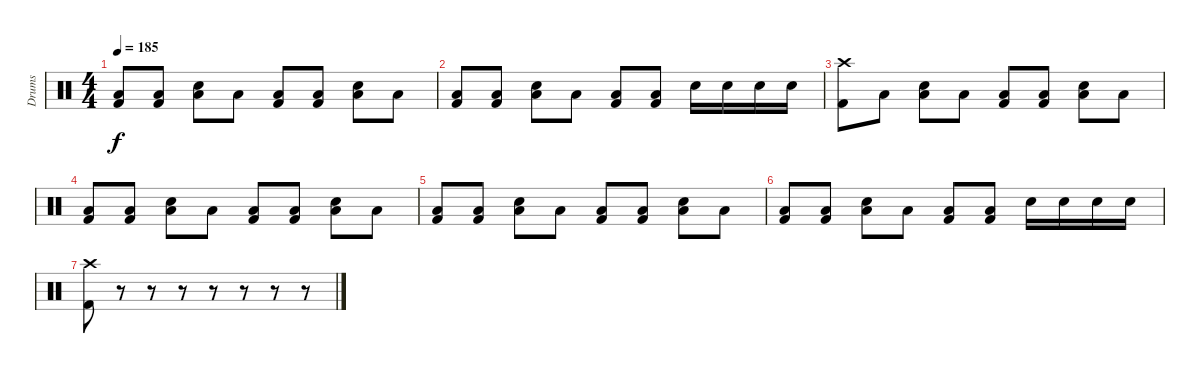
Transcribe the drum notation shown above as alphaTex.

\track ("Drums" "Drums") {instrument percussion}
\staff {score}
\articulation defaults
\ts (4 4)
\tempo 185
\clef neutral
\ks c
("Low Tom (hit)" "Kick (hit) 2").8{dy f} ("Low Tom (hit)" "Kick (hit) 2").8 ("Low Tom (hit)" "Snare (hit) 2").8 "Low Tom (hit)".8 ("Low Tom (hit)" "Kick (hit) 2").8 ("Low Tom (hit)" "Kick (hit) 2").8 ("Low Tom (hit)" "Snare (hit) 2").8 "Low Tom (hit)".8 |
("Low Tom (hit)" "Kick (hit) 2").8 ("Low Tom (hit)" "Kick (hit) 2").8 ("Low Tom (hit)" "Snare (hit) 2").8 "Low Tom (hit)".8 ("Low Tom (hit)" "Kick (hit) 2").8 ("Low Tom (hit)" "Kick (hit) 2").8 "Snare (hit) 2".16 "Snare (hit) 2".16 "Snare (hit) 2".16 "Snare (hit) 2".16 |
("Crash high (hit)" "Kick (hit) 2").8 "Low Tom (hit)".8 ("Low Tom (hit)" "Snare (hit) 2").8 "Low Tom (hit)".8 ("Low Tom (hit)" "Kick (hit) 2").8 ("Low Tom (hit)" "Kick (hit) 2").8 ("Low Tom (hit)" "Snare (hit) 2").8 "Low Tom (hit)".8 |
("Low Tom (hit)" "Kick (hit) 2").8 ("Low Tom (hit)" "Kick (hit) 2").8 ("Low Tom (hit)" "Snare (hit) 2").8 "Low Tom (hit)".8 ("Low Tom (hit)" "Kick (hit) 2").8 ("Low Tom (hit)" "Kick (hit) 2").8 ("Low Tom (hit)" "Snare (hit) 2").8 "Low Tom (hit)".8 |
("Low Tom (hit)" "Kick (hit) 2").8 ("Low Tom (hit)" "Kick (hit) 2").8 ("Low Tom (hit)" "Snare (hit) 2").8 "Low Tom (hit)".8 ("Low Tom (hit)" "Kick (hit) 2").8 ("Low Tom (hit)" "Kick (hit) 2").8 ("Low Tom (hit)" "Snare (hit) 2").8 "Low Tom (hit)".8 |
("Low Tom (hit)" "Kick (hit) 2").8 ("Low Tom (hit)" "Kick (hit) 2").8 ("Low Tom (hit)" "Snare (hit) 2").8 "Low Tom (hit)".8 ("Low Tom (hit)" "Kick (hit) 2").8 ("Low Tom (hit)" "Kick (hit) 2").8 "Snare (hit) 2".16 "Snare (hit) 2".16 "Snare (hit) 2".16 "Snare (hit) 2".16 |
("Crash high (hit)" "Kick (hit) 2").8 r.8 r.8 r.8 r.8 r.8 r.8 r.8
